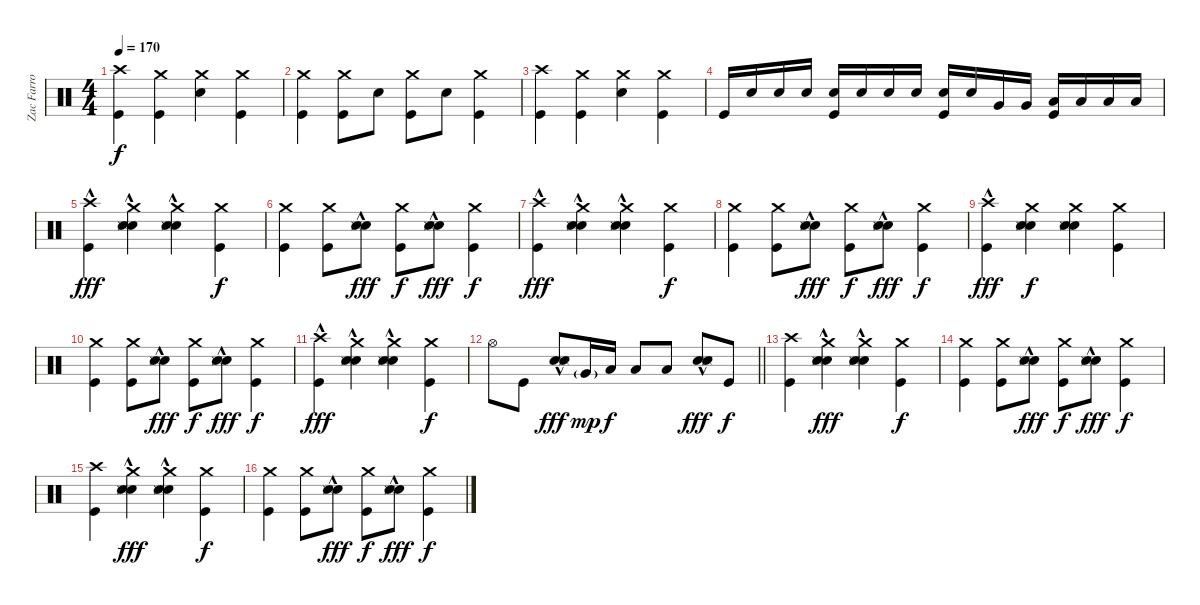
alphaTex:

\track ("Zac Farro (Drums)" "Zac Farro ") {instrument percussion}
\staff {score}
\articulation defaults
\ts (4 4)
\tempo 170
\clef neutral
\ks c
("Crash high (hit)" "Kick (hit)").4{dy f} ("Crash medium (hit)" "Kick (hit)").4 ("Crash medium (hit)" "Electric Snare (hit)").4 ("Crash medium (hit)" "Kick (hit)").4 |
("Crash medium (hit)" "Kick (hit)").4 ("Crash medium (hit)" "Kick (hit)").8 "Electric Snare (hit)".8 ("Crash medium (hit)" "Kick (hit)").8 "Electric Snare (hit)".8 ("Crash medium (hit)" "Kick (hit)").4 |
("Crash high (hit)" "Kick (hit)").4 ("Crash medium (hit)" "Kick (hit)").4 ("Crash medium (hit)" "Electric Snare (hit)").4 ("Crash medium (hit)" "Kick (hit)").4 |
"Kick (hit)".16 "Electric Snare (hit)".16 "Electric Snare (hit)".16 "Electric Snare (hit)".16 ("Electric Snare (hit)" "Kick (hit)").16 "Electric Snare (hit)".16 "Electric Snare (hit)".16 "Electric Snare (hit)".16 ("Electric Snare (hit)" "Kick (hit)").16 "Electric Snare (hit)".16 "Very Low Tom (hit)".16 "Very Low Tom (hit)".16 ("Low Floor Tom (hit)" "Kick (hit)").16 "Low Floor Tom (hit)".16 "Low Floor Tom (hit)".16 "Low Floor Tom (hit)".16 |
("Crash high (hit)"{hac} "Kick (hit)"{hac}).4{dy fff} ("Crash medium (hit)"{hac} "Snare (hit) 2"{hac} "Snare (side stick) 3"{hac} "Electric Snare (hit)"{hac}).4 ("Crash medium (hit)"{hac} "Snare (hit) 2"{hac} "Snare (side stick) 3"{hac} "Electric Snare (hit)"{hac}).4 ("Crash medium (hit)" "Kick (hit)").4{dy f} |
("Crash medium (hit)" "Kick (hit)").4 ("Crash medium (hit)" "Kick (hit)").8 ("Snare (hit) 2"{hac} "Snare (side stick) 3"{hac} "Electric Snare (hit)"{hac}).8{dy fff} ("Crash medium (hit)" "Kick (hit)").8{dy f} ("Snare (hit) 2"{hac} "Snare (side stick) 3"{hac} "Electric Snare (hit)"{hac}).8{dy fff} ("Crash medium (hit)" "Kick (hit)").4{dy f} |
("Crash high (hit)"{hac} "Kick (hit)"{hac}).4{dy fff} ("Crash medium (hit)"{hac} "Snare (hit) 2"{hac} "Snare (side stick) 3"{hac} "Electric Snare (hit)"{hac}).4 ("Crash medium (hit)"{hac} "Snare (hit) 2"{hac} "Snare (side stick) 3"{hac} "Electric Snare (hit)"{hac}).4 ("Crash medium (hit)" "Kick (hit)").4{dy f} |
("Crash medium (hit)" "Kick (hit)").4 ("Crash medium (hit)" "Kick (hit)").8 ("Snare (hit) 2"{hac} "Snare (side stick) 3"{hac} "Electric Snare (hit)"{hac}).8{dy fff} ("Crash medium (hit)" "Kick (hit)").8{dy f} ("Snare (hit) 2"{hac} "Snare (side stick) 3"{hac} "Electric Snare (hit)"{hac}).8{dy fff} ("Crash medium (hit)" "Kick (hit)").4{dy f} |
("Crash high (hit)"{hac} "Kick (hit)"{hac}).4{dy fff} ("Crash medium (hit)" "Snare (hit) 2" "Snare (side stick) 3" "Electric Snare (hit)").4{dy f} ("Crash medium (hit)" "Snare (hit) 2" "Snare (side stick) 3" "Electric Snare (hit)").4 ("Crash medium (hit)" "Kick (hit)").4 |
("Crash medium (hit)" "Kick (hit)").4 ("Crash medium (hit)" "Kick (hit)").8 ("Snare (hit) 2"{hac} "Snare (side stick) 3"{hac} "Electric Snare (hit)"{hac}).8{dy fff} ("Crash medium (hit)" "Kick (hit)").8{dy f} ("Snare (hit) 2"{hac} "Snare (side stick) 3"{hac} "Electric Snare (hit)"{hac}).8{dy fff} ("Crash medium (hit)" "Kick (hit)").4{dy f} |
("Crash high (hit)"{hac} "Kick (hit)"{hac}).4{dy fff} ("Crash medium (hit)"{hac} "Snare (hit) 2"{hac} "Snare (side stick) 3"{hac} "Electric Snare (hit)"{hac}).4 ("Crash medium (hit)"{hac} "Snare (hit) 2"{hac} "Snare (side stick) 3"{hac} "Electric Snare (hit)"{hac}).4 ("Crash medium (hit)" "Kick (hit)").4{dy f} |
\barLineRight lightlight "Hi-Hat (open)".8 "Kick (hit)".8
("Snare (hit) 2"{hac} "Snare (side stick) 3"{hac} "Electric Snare (hit)"{hac}).8{dy fff} "Very Low Tom (hit)"{g}.16{dy mp} "Low Floor Tom (hit)".16{dy f} "Low Floor Tom (hit)".8 "Low Floor Tom (hit)".8 ("Snare (hit) 2"{hac} "Snare (side stick) 3"{hac} "Electric Snare (hit)"{hac}).8{dy fff} "Kick (hit)".8{dy f} |
\section ("" "")
("Crash high (hit)" "Kick (hit)").4 ("Crash medium (hit)"{hac} "Snare (hit) 2"{hac} "Snare (side stick) 3"{hac} "Electric Snare (hit)"{hac}).4{dy fff} ("Crash medium (hit)"{hac} "Snare (hit) 2"{hac} "Snare (side stick) 3"{hac} "Electric Snare (hit)"{hac}).4 ("Crash medium (hit)" "Kick (hit)").4{dy f} |
("Crash medium (hit)" "Kick (hit)").4 ("Crash medium (hit)" "Kick (hit)").8 ("Snare (hit) 2"{hac} "Snare (side stick) 3"{hac} "Electric Snare (hit)"{hac}).8{dy fff} ("Crash medium (hit)" "Kick (hit)").8{dy f} ("Snare (hit) 2"{hac} "Snare (side stick) 3"{hac} "Electric Snare (hit)"{hac}).8{dy fff} ("Crash medium (hit)" "Kick (hit)").4{dy f} |
("Crash high (hit)" "Kick (hit)").4 ("Crash medium (hit)"{hac} "Snare (hit) 2"{hac} "Snare (side stick) 3"{hac} "Electric Snare (hit)"{hac}).4{dy fff} ("Crash medium (hit)"{hac} "Snare (hit) 2"{hac} "Snare (side stick) 3"{hac} "Electric Snare (hit)"{hac}).4 ("Crash medium (hit)" "Kick (hit)").4{dy f} |
("Crash medium (hit)" "Kick (hit)").4 ("Crash medium (hit)" "Kick (hit)").8 ("Snare (hit) 2"{hac} "Snare (side stick) 3"{hac} "Electric Snare (hit)"{hac}).8{dy fff} ("Crash medium (hit)" "Kick (hit)").8{dy f} ("Snare (hit) 2"{hac} "Snare (side stick) 3"{hac} "Electric Snare (hit)"{hac}).8{dy fff} ("Crash medium (hit)" "Kick (hit)").4{dy f}
